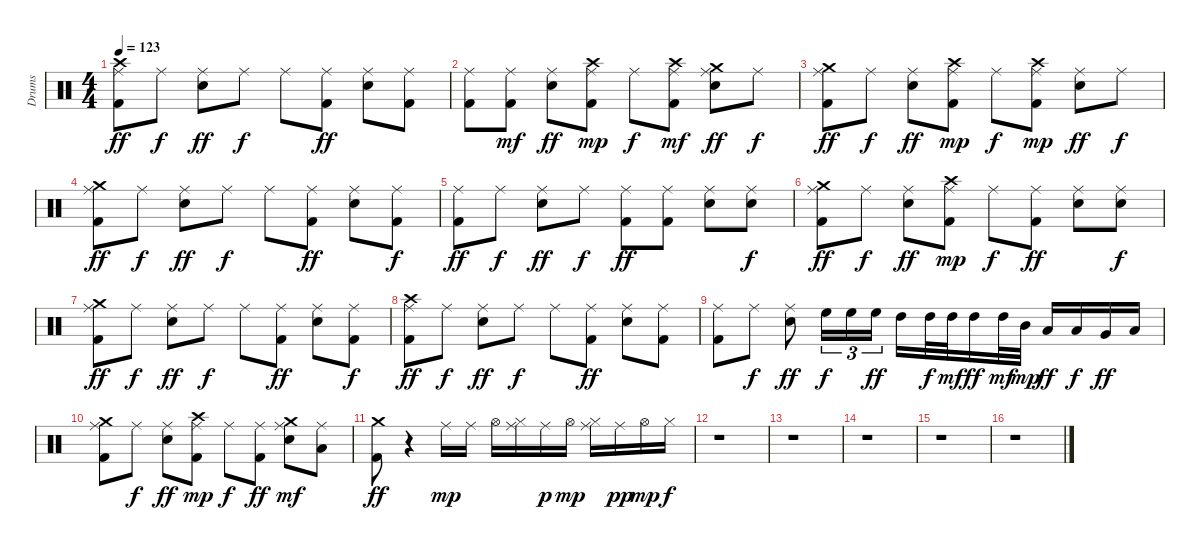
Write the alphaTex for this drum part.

\track ("Drums" "Drums") {instrument percussion}
\staff {score}
\articulation defaults
\ts (4 4)
\tempo 123
\clef neutral
\ks c
("Kick (hit) 2" "Crash high (hit)" "Ride (middle)").8{dy ff} "Ride (middle)".8{dy f} ("Electric Snare (hit)" "Ride (middle)").8{dy ff} "Ride (middle)".8{dy f} "Ride (middle)".8 ("Kick (hit) 2" "Ride (middle)").8{dy ff} ("Electric Snare (hit)" "Ride (middle)").8 ("Kick (hit) 2" "Ride (middle)").8 |
("Kick (hit) 2" "Ride (middle)").8 ("Kick (hit) 2" "Ride (middle)").8{dy mf} ("Electric Snare (hit)" "Ride (middle)").8{dy ff} ("Kick (hit) 2" "Crash high (hit)" "Ride (middle)").8{dy mp} "Ride (middle)".8{dy f} ("Kick (hit) 2" "Crash high (hit)" "Ride (middle)").8{dy mf} ("Electric Snare (hit)" "Crash medium (hit)" "Ride (middle)").8{dy ff} "Ride (middle)".8{dy f} |
("Kick (hit) 2" "Crash medium (hit)" "Ride (middle)").8{dy ff} "Ride (middle)".8{dy f} ("Electric Snare (hit)" "Ride (middle)").8{dy ff} ("Kick (hit) 2" "Crash high (hit)" "Ride (middle)").8{dy mp} "Ride (middle)".8{dy f} ("Kick (hit) 2" "Crash high (hit)" "Ride (middle)").8{dy mp} ("Electric Snare (hit)" "Ride (middle)").8{dy ff} "Ride (middle)".8{dy f} |
("Kick (hit) 2" "Crash medium (hit)" "Ride (middle)").8{dy ff} "Ride (middle)".8{dy f} ("Electric Snare (hit)" "Ride (middle)").8{dy ff} "Ride (middle)".8{dy f} "Ride (middle)".8 ("Kick (hit) 2" "Ride (middle)").8{dy ff} ("Electric Snare (hit)" "Ride (middle)").8 ("Kick (hit) 2" "Ride (middle)").8{dy f} |
("Kick (hit) 2" "Ride (middle)").8{dy ff} "Ride (middle)".8{dy f} ("Electric Snare (hit)" "Ride (middle)").8{dy ff} "Ride (middle)".8{dy f} ("Kick (hit) 2" "Ride (middle)").8{dy ff} ("Kick (hit) 2" "Ride (middle)").8 ("Electric Snare (hit)" "Ride (middle)").8 ("Electric Snare (hit)" "Ride (middle)").8{dy f} |
("Kick (hit) 2" "Crash medium (hit)" "Ride (middle)").8{dy ff} "Ride (middle)".8{dy f} ("Electric Snare (hit)" "Ride (middle)").8{dy ff} ("Kick (hit) 2" "Crash high (hit)" "Ride (middle)").8{dy mp} "Ride (middle)".8{dy f} ("Kick (hit) 2" "Ride (middle)").8{dy ff} ("Electric Snare (hit)" "Ride (middle)").8 ("Electric Snare (hit)" "Ride (middle)").8{dy f} |
("Kick (hit) 2" "Crash medium (hit)" "Ride (middle)").8{dy ff} "Ride (middle)".8{dy f} ("Electric Snare (hit)" "Ride (middle)").8{dy ff} "Ride (middle)".8{dy f} "Ride (middle)".8 ("Kick (hit) 2" "Ride (middle)").8{dy ff} ("Electric Snare (hit)" "Ride (middle)").8 ("Kick (hit) 2" "Ride (middle)").8{dy f} |
("Kick (hit) 2" "Crash high (hit)" "Ride (middle)").8{dy ff} "Ride (middle)".8{dy f} ("Electric Snare (hit)" "Ride (middle)").8{dy ff} "Ride (middle)".8{dy f} "Ride (middle)".8 ("Kick (hit) 2" "Ride (middle)").8{dy ff} ("Electric Snare (hit)" "Ride (middle)").8 ("Kick (hit) 2" "Ride (middle)").8 |
("Kick (hit) 2" "Ride (middle)").8 "Ride (middle)".8{dy f} ("Electric Snare (hit)" "Ride (middle)").8{dy ff} "High Floor Tom (hit)".16{tu (3 2) dy f} "High Floor Tom (hit)".16{tu (3 2)} "High Floor Tom (hit)".16{tu (3 2) dy ff} "High Tom (hit)".16 "High Tom (hit)".32{dy f} "High Tom (hit)".32{dy mf} "High Tom (hit)".16{dy ff} "High Tom (hit)".32{dy mf} "Mid Tom (hit)".32{dy mp} "Low Tom (hit)".16{dy ff} "Low Tom (hit)".16{dy f} "Very Low Tom (hit)".16{dy ff} "Low Floor Tom (hit)".16 |
("Kick (hit) 2" "Crash medium (hit)" "Ride (middle)").8 "Ride (middle)".8{dy f} ("Electric Snare (hit)" "Ride (middle)").8{dy ff} ("Kick (hit) 2" "Crash high (hit)" "Ride (middle)").8{dy mp} "Ride (middle)".8{dy f} ("Kick (hit) 2" "Ride (middle)").8{dy ff} ("Electric Snare (hit)" "Crash medium (hit)" "Ride (middle)").8{dy mf} ("Low Tom (hit)" "Ride (middle)").8 |
("Kick (hit) 2" "Crash medium (hit)").8{dy ff} r.4 "Ride (middle)".16{dy mp} "Ride (middle)".16 "Hi-Hat (open)".16 ("Hi-Hat (closed)" "Ride (middle)").16 "Ride (middle)".16{dy p} "Hi-Hat (open)".16{dy mp} ("Hi-Hat (closed)" "Ride (middle)").16 "Ride (middle)".16{dy pp} "Hi-Hat (open)".16{dy mp} "Hi-Hat (closed)".16{dy f} |
r.1 |
r.1 |
r.1 |
r.1 |
r.1
